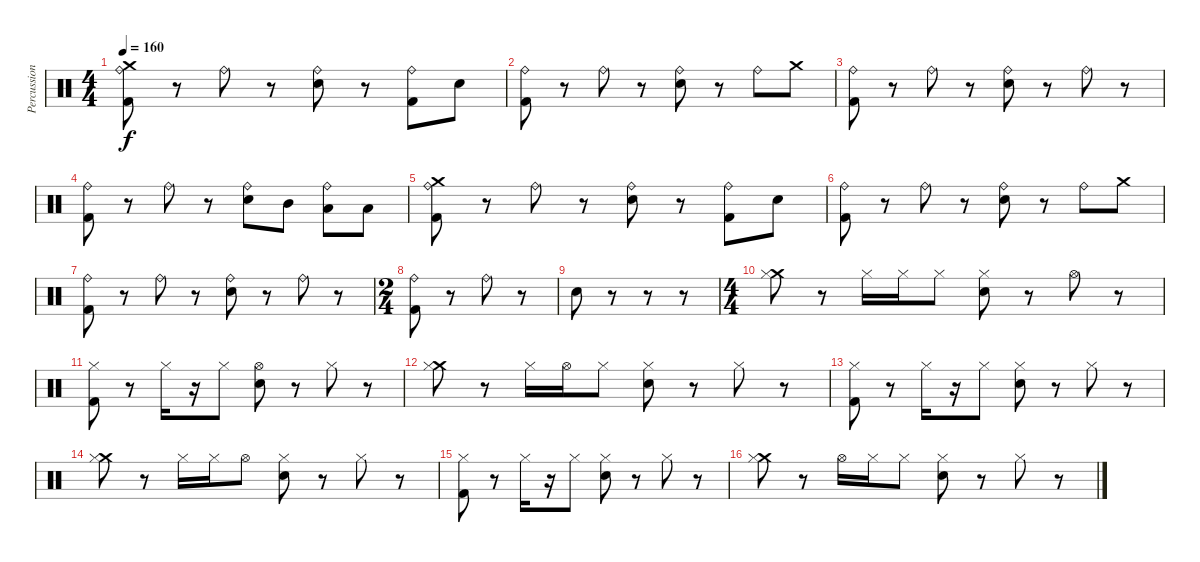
\track ("Percussion" "Percussion") {instrument percussion}
\staff {score}
\articulation defaults
\ts (4 4)
\tempo 160
\clef neutral
\ks c
("Crash medium (hit)" "Ride (bell)" "Kick (hit) 2").8{dy f} r.8 "Ride (bell)".8 r.8 ("Ride (bell)" "Electric Snare (hit)").8 r.8 ("Kick (hit) 2" "Ride (bell)").8 "Electric Snare (hit)".8 |
("Ride (bell)" "Kick (hit) 2").8 r.8 "Ride (bell)".8 r.8 ("Ride (bell)" "Electric Snare (hit)").8 r.8 "Ride (bell)".8 "Crash medium (hit)".8 |
("Ride (bell)" "Kick (hit) 2").8 r.8 "Ride (bell)".8 r.8 ("Ride (bell)" "Electric Snare (hit)").8 r.8 "Ride (bell)".8 r.8 |
("Ride (bell)" "Kick (hit) 2").8 r.8 "Ride (bell)".8 r.8 ("Ride (bell)" "Electric Snare (hit)").8 "Mid Tom (hit)".8 ("Low Tom (hit)" "Ride (bell)").8 "Low Floor Tom (hit)".8 |
("Crash medium (hit)" "Ride (bell)" "Kick (hit) 2").8 r.8 "Ride (bell)".8 r.8 ("Ride (bell)" "Electric Snare (hit)").8 r.8 ("Kick (hit) 2" "Ride (bell)").8 "Electric Snare (hit)".8 |
("Ride (bell)" "Kick (hit) 2").8 r.8 "Ride (bell)".8 r.8 ("Ride (bell)" "Electric Snare (hit)").8 r.8 "Ride (bell)".8 "Crash medium (hit)".8 |
("Ride (bell)" "Kick (hit) 2").8 r.8 "Ride (bell)".8 r.8 ("Ride (bell)" "Electric Snare (hit)").8 r.8 "Ride (bell)".8 r.8 |
\ts (2 4)
("Ride (bell)" "Kick (hit) 2").8 r.8 "Ride (bell)".8 r.8 |
"Electric Snare (hit)".8 r.8 r.8 r.8 |
\ts (4 4)
("Crash medium (hit)" "Hi-Hat (closed)").8 r.8 "Hi-Hat (closed)".16 "Hi-Hat (closed)".16 "Hi-Hat (closed)".8 ("Electric Snare (hit)" "Hi-Hat (closed)").8 r.8 "Hi-Hat (open)".8 r.8 |
("Hi-Hat (closed)" "Kick (hit) 2").8 r.8 "Hi-Hat (closed)".16 r.16 "Hi-Hat (closed)".8 ("Electric Snare (hit)" "Hi-Hat (open)").8 r.8 "Hi-Hat (closed)".8 r.8 |
("Crash medium (hit)" "Hi-Hat (closed)").8 r.8 "Hi-Hat (closed)".16 "Hi-Hat (open)".16 "Hi-Hat (closed)".8 ("Electric Snare (hit)" "Hi-Hat (closed)").8 r.8 "Hi-Hat (closed)".8 r.8 |
("Hi-Hat (closed)" "Kick (hit) 2").8 r.8 "Hi-Hat (closed)".16 r.16 "Hi-Hat (closed)".8 ("Electric Snare (hit)" "Hi-Hat (closed)").8 r.8 "Hi-Hat (closed)".8 r.8 |
("Crash medium (hit)" "Hi-Hat (closed)").8 r.8 "Hi-Hat (closed)".16 "Hi-Hat (closed)".16 "Hi-Hat (open)".8 ("Electric Snare (hit)" "Hi-Hat (closed)").8 r.8 "Hi-Hat (closed)".8 r.8 |
("Hi-Hat (closed)" "Kick (hit) 2").8 r.8 "Hi-Hat (closed)".16 r.16 "Hi-Hat (closed)".8 ("Electric Snare (hit)" "Hi-Hat (closed)").8 r.8 "Hi-Hat (closed)".8 r.8 |
("Crash medium (hit)" "Hi-Hat (closed)").8 r.8 "Hi-Hat (open)".16 "Hi-Hat (closed)".16 "Hi-Hat (closed)".8 ("Electric Snare (hit)" "Hi-Hat (closed)").8 r.8 "Hi-Hat (closed)".8 r.8
